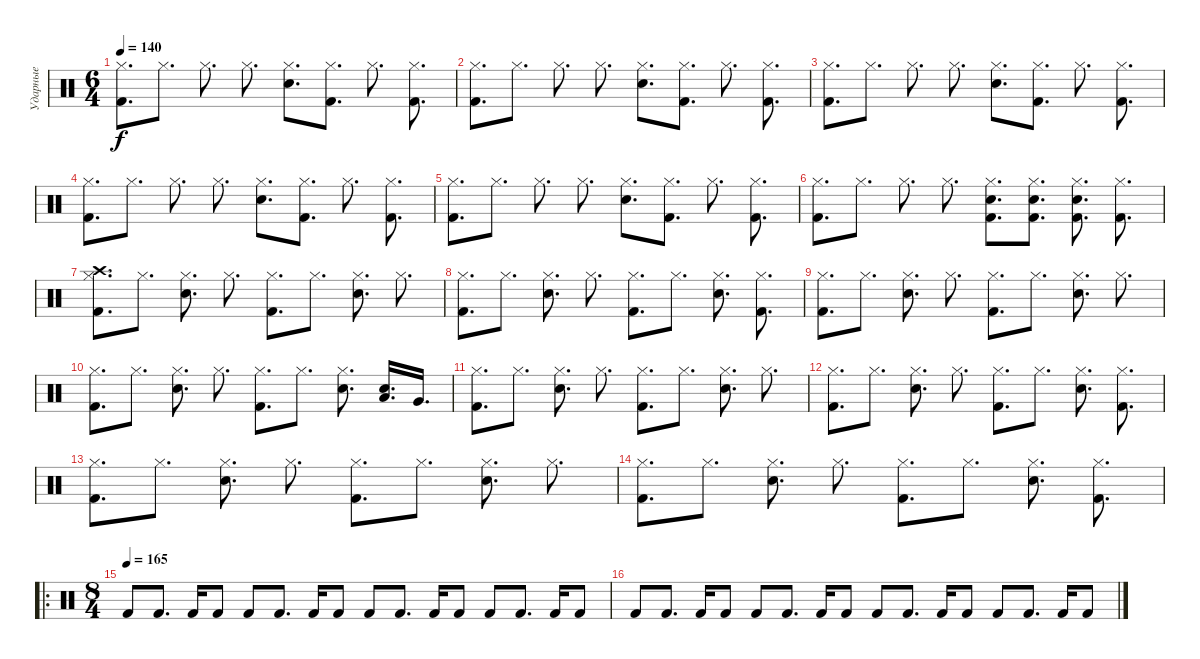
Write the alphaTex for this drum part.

\track ("Ударные" "Ударные") {instrument percussion}
\staff {score}
\articulation defaults
\ts (6 4)
\tempo 140
\clef neutral
\ks c
("Hi-Hat (closed)" "Kick (hit) 2").8{d dy f} "Hi-Hat (closed)".8{d} "Hi-Hat (closed)".8{d} "Hi-Hat (closed)".8{d} ("Hi-Hat (closed)" "Snare (hit) 2").8{d} ("Hi-Hat (closed)" "Kick (hit) 2").8{d} "Hi-Hat (closed)".8{d} ("Hi-Hat (closed)" "Kick (hit) 2").8{d} |
("Hi-Hat (closed)" "Kick (hit) 2").8{d} "Hi-Hat (closed)".8{d} "Hi-Hat (closed)".8{d} "Hi-Hat (closed)".8{d} ("Hi-Hat (closed)" "Snare (hit) 2").8{d} ("Hi-Hat (closed)" "Kick (hit) 2").8{d} "Hi-Hat (closed)".8{d} ("Hi-Hat (closed)" "Kick (hit) 2").8{d} |
("Hi-Hat (closed)" "Kick (hit) 2").8{d} "Hi-Hat (closed)".8{d} "Hi-Hat (closed)".8{d} "Hi-Hat (closed)".8{d} ("Hi-Hat (closed)" "Snare (hit) 2").8{d} ("Hi-Hat (closed)" "Kick (hit) 2").8{d} "Hi-Hat (closed)".8{d} ("Hi-Hat (closed)" "Kick (hit) 2").8{d} |
("Hi-Hat (closed)" "Kick (hit) 2").8{d} "Hi-Hat (closed)".8{d} "Hi-Hat (closed)".8{d} "Hi-Hat (closed)".8{d} ("Hi-Hat (closed)" "Snare (hit) 2").8{d} ("Hi-Hat (closed)" "Kick (hit) 2").8{d} "Hi-Hat (closed)".8{d} ("Hi-Hat (closed)" "Kick (hit) 2").8{d} |
("Hi-Hat (closed)" "Kick (hit) 2").8{d} "Hi-Hat (closed)".8{d} "Hi-Hat (closed)".8{d} "Hi-Hat (closed)".8{d} ("Hi-Hat (closed)" "Snare (hit) 2").8{d} ("Hi-Hat (closed)" "Kick (hit) 2").8{d} "Hi-Hat (closed)".8{d} ("Hi-Hat (closed)" "Kick (hit) 2").8{d} |
("Hi-Hat (closed)" "Kick (hit) 2").8{d} "Hi-Hat (closed)".8{d} "Hi-Hat (closed)".8{d} "Hi-Hat (closed)".8{d} ("Hi-Hat (closed)" "Kick (hit) 2" "Snare (hit) 2").8{d} ("Hi-Hat (closed)" "Kick (hit) 2" "Snare (hit) 2").8{d} ("Hi-Hat (closed)" "Snare (hit) 2" "Kick (hit) 2").8{d} ("Hi-Hat (closed)" "Kick (hit) 2").8{d} |
("Hi-Hat (closed)" "Crash high (hit)" "Kick (hit) 2").8{d} "Hi-Hat (closed)".8{d} ("Hi-Hat (closed)" "Snare (hit) 2").8{d} "Hi-Hat (closed)".8{d} ("Hi-Hat (closed)" "Kick (hit) 2").8{d} "Hi-Hat (closed)".8{d} ("Hi-Hat (closed)" "Snare (hit) 2").8{d} "Hi-Hat (closed)".8{d} |
("Hi-Hat (closed)" "Kick (hit) 2").8{d} "Hi-Hat (closed)".8{d} ("Hi-Hat (closed)" "Snare (hit) 2").8{d} "Hi-Hat (closed)".8{d} ("Hi-Hat (closed)" "Kick (hit) 2").8{d} "Hi-Hat (closed)".8{d} ("Hi-Hat (closed)" "Snare (hit) 2").8{d} ("Hi-Hat (closed)" "Kick (hit) 2").8{d} |
("Hi-Hat (closed)" "Kick (hit) 2").8{d} "Hi-Hat (closed)".8{d} ("Hi-Hat (closed)" "Snare (hit) 2").8{d} "Hi-Hat (closed)".8{d} ("Hi-Hat (closed)" "Kick (hit) 2").8{d} "Hi-Hat (closed)".8{d} ("Hi-Hat (closed)" "Snare (hit) 2").8{d} "Hi-Hat (closed)".8{d} |
("Hi-Hat (closed)" "Kick (hit) 2").8{d} "Hi-Hat (closed)".8{d} ("Hi-Hat (closed)" "Snare (hit) 2").8{d} "Hi-Hat (closed)".8{d} ("Hi-Hat (closed)" "Kick (hit) 2").8{d} "Hi-Hat (closed)".8{d} ("Hi-Hat (closed)" "Snare (hit) 2").8{d} ("Low Tom (hit)" "Electric Snare (hit)").16{d} "Very Low Tom (hit)".16{d} |
("Hi-Hat (closed)" "Kick (hit) 2").8{d} "Hi-Hat (closed)".8{d} ("Hi-Hat (closed)" "Snare (hit) 2").8{d} "Hi-Hat (closed)".8{d} ("Hi-Hat (closed)" "Kick (hit) 2").8{d} "Hi-Hat (closed)".8{d} ("Hi-Hat (closed)" "Snare (hit) 2").8{d} "Hi-Hat (closed)".8{d} |
("Hi-Hat (closed)" "Kick (hit) 2").8{d} "Hi-Hat (closed)".8{d} ("Hi-Hat (closed)" "Snare (hit) 2").8{d} "Hi-Hat (closed)".8{d} ("Hi-Hat (closed)" "Kick (hit) 2").8{d} "Hi-Hat (closed)".8{d} ("Hi-Hat (closed)" "Snare (hit) 2").8{d} ("Hi-Hat (closed)" "Kick (hit) 2").8{d} |
("Hi-Hat (closed)" "Kick (hit) 2").8{d} "Hi-Hat (closed)".8{d} ("Hi-Hat (closed)" "Snare (hit) 2").8{d} "Hi-Hat (closed)".8{d} ("Hi-Hat (closed)" "Kick (hit) 2").8{d} "Hi-Hat (closed)".8{d} ("Hi-Hat (closed)" "Snare (hit) 2").8{d} "Hi-Hat (closed)".8{d} |
("Hi-Hat (closed)" "Kick (hit) 2").8{d} "Hi-Hat (closed)".8{d} ("Hi-Hat (closed)" "Snare (hit) 2").8{d} "Hi-Hat (closed)".8{d} ("Hi-Hat (closed)" "Kick (hit) 2").8{d} "Hi-Hat (closed)".8{d} ("Hi-Hat (closed)" "Snare (hit) 2").8{d} ("Hi-Hat (closed)" "Kick (hit) 2").8{d} |
\ro
\ts (8 4)
\tempo (165)
"Kick (hit) 2".8 "Kick (hit) 2".8{d} "Kick (hit) 2".16 "Kick (hit) 2".8 "Kick (hit) 2".8 "Kick (hit) 2".8{d} "Kick (hit) 2".16 "Kick (hit) 2".8 "Kick (hit) 2".8 "Kick (hit) 2".8{d} "Kick (hit) 2".16 "Kick (hit) 2".8 "Kick (hit) 2".8 "Kick (hit) 2".8{d} "Kick (hit) 2".16 "Kick (hit) 2".8 |
"Kick (hit) 2".8 "Kick (hit) 2".8{d} "Kick (hit) 2".16 "Kick (hit) 2".8 "Kick (hit) 2".8 "Kick (hit) 2".8{d} "Kick (hit) 2".16 "Kick (hit) 2".8 "Kick (hit) 2".8 "Kick (hit) 2".8{d} "Kick (hit) 2".16 "Kick (hit) 2".8 "Kick (hit) 2".8 "Kick (hit) 2".8{d} "Kick (hit) 2".16 "Kick (hit) 2".8
